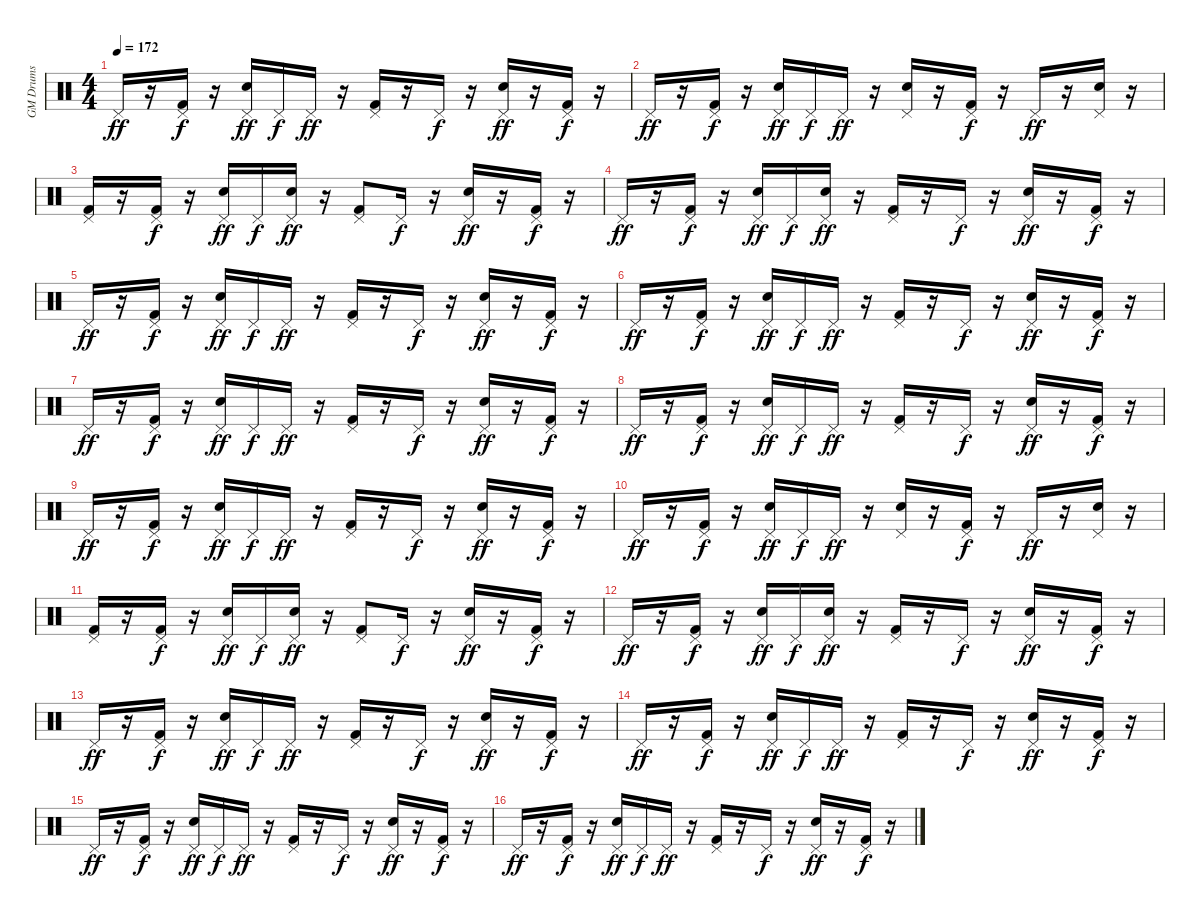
\track ("GM Drums" "GM Drums") {instrument percussion}
\staff {score}
\articulation defaults
\ts (4 4)
\tempo 172
\clef neutral
\ks c "Pedal Hi-Hat (hit)".16{dy ff}
r.16 ("Kick (hit) 2" "Pedal Hi-Hat (hit)").16{dy f} r.16 ("Snare (hit) 2" "Pedal Hi-Hat (hit)").16{dy ff} "Pedal Hi-Hat (hit)".16{dy f} "Pedal Hi-Hat (hit)".16{dy ff} r.16 ("Kick (hit) 2" "Pedal Hi-Hat (hit)").16 r.16 "Pedal Hi-Hat (hit)".16{dy f} r.16 ("Snare (hit) 2" "Pedal Hi-Hat (hit)").16{dy ff} r.16 ("Kick (hit) 2" "Pedal Hi-Hat (hit)").16{dy f} r.16 |
"Pedal Hi-Hat (hit)".16{dy ff} r.16 ("Kick (hit) 2" "Pedal Hi-Hat (hit)").16{dy f} r.16 ("Snare (hit) 2" "Pedal Hi-Hat (hit)").16{dy ff} "Pedal Hi-Hat (hit)".16{dy f} "Pedal Hi-Hat (hit)".16{dy ff} r.16 ("Snare (hit) 2" "Pedal Hi-Hat (hit)").16 r.16 ("Kick (hit) 2" "Pedal Hi-Hat (hit)").16{dy f} r.16 "Pedal Hi-Hat (hit)".16{dy ff} r.16 ("Snare (hit) 2" "Pedal Hi-Hat (hit)").16 r.16 |
("Kick (hit) 2" "Pedal Hi-Hat (hit)").16 r.16 ("Kick (hit) 2" "Pedal Hi-Hat (hit)").16{dy f} r.16 ("Snare (hit) 2" "Pedal Hi-Hat (hit)").16{dy ff} "Pedal Hi-Hat (hit)".16{dy f} ("Snare (hit) 2" "Pedal Hi-Hat (hit)").16{dy ff} r.16 ("Kick (hit) 2" "Pedal Hi-Hat (hit)").8 "Pedal Hi-Hat (hit)".16{dy f} r.16 ("Snare (hit) 2" "Pedal Hi-Hat (hit)").16{dy ff} r.16 ("Kick (hit) 2" "Pedal Hi-Hat (hit)").16{dy f} r.16 |
"Pedal Hi-Hat (hit)".16{dy ff} r.16 ("Kick (hit) 2" "Pedal Hi-Hat (hit)").16{dy f} r.16 ("Snare (hit) 2" "Pedal Hi-Hat (hit)").16{dy ff} "Pedal Hi-Hat (hit)".16{dy f} ("Snare (hit) 2" "Pedal Hi-Hat (hit)").16{dy ff} r.16 ("Kick (hit) 2" "Pedal Hi-Hat (hit)").16 r.16 "Pedal Hi-Hat (hit)".16{dy f} r.16 ("Snare (hit) 2" "Pedal Hi-Hat (hit)").16{dy ff} r.16 ("Kick (hit) 2" "Pedal Hi-Hat (hit)").16{dy f} r.16 |
"Pedal Hi-Hat (hit)".16{dy ff} r.16 ("Kick (hit) 2" "Pedal Hi-Hat (hit)").16{dy f} r.16 ("Snare (hit) 2" "Pedal Hi-Hat (hit)").16{dy ff} "Pedal Hi-Hat (hit)".16{dy f} "Pedal Hi-Hat (hit)".16{dy ff} r.16 ("Kick (hit) 2" "Pedal Hi-Hat (hit)").16 r.16 "Pedal Hi-Hat (hit)".16{dy f} r.16 ("Snare (hit) 2" "Pedal Hi-Hat (hit)").16{dy ff} r.16 ("Kick (hit) 2" "Pedal Hi-Hat (hit)").16{dy f} r.16 |
"Pedal Hi-Hat (hit)".16{dy ff} r.16 ("Kick (hit) 2" "Pedal Hi-Hat (hit)").16{dy f} r.16 ("Snare (hit) 2" "Pedal Hi-Hat (hit)").16{dy ff} "Pedal Hi-Hat (hit)".16{dy f} "Pedal Hi-Hat (hit)".16{dy ff} r.16 ("Kick (hit) 2" "Pedal Hi-Hat (hit)").16 r.16 "Pedal Hi-Hat (hit)".16{dy f} r.16 ("Snare (hit) 2" "Pedal Hi-Hat (hit)").16{dy ff} r.16 ("Kick (hit) 2" "Pedal Hi-Hat (hit)").16{dy f} r.16 |
"Pedal Hi-Hat (hit)".16{dy ff} r.16 ("Kick (hit) 2" "Pedal Hi-Hat (hit)").16{dy f} r.16 ("Snare (hit) 2" "Pedal Hi-Hat (hit)").16{dy ff} "Pedal Hi-Hat (hit)".16{dy f} "Pedal Hi-Hat (hit)".16{dy ff} r.16 ("Kick (hit) 2" "Pedal Hi-Hat (hit)").16 r.16 "Pedal Hi-Hat (hit)".16{dy f} r.16 ("Snare (hit) 2" "Pedal Hi-Hat (hit)").16{dy ff} r.16 ("Kick (hit) 2" "Pedal Hi-Hat (hit)").16{dy f} r.16 |
"Pedal Hi-Hat (hit)".16{dy ff} r.16 ("Kick (hit) 2" "Pedal Hi-Hat (hit)").16{dy f} r.16 ("Snare (hit) 2" "Pedal Hi-Hat (hit)").16{dy ff} "Pedal Hi-Hat (hit)".16{dy f} "Pedal Hi-Hat (hit)".16{dy ff} r.16 ("Kick (hit) 2" "Pedal Hi-Hat (hit)").16 r.16 "Pedal Hi-Hat (hit)".16{dy f} r.16 ("Snare (hit) 2" "Pedal Hi-Hat (hit)").16{dy ff} r.16 ("Kick (hit) 2" "Pedal Hi-Hat (hit)").16{dy f} r.16 |
"Pedal Hi-Hat (hit)".16{dy ff} r.16 ("Kick (hit) 2" "Pedal Hi-Hat (hit)").16{dy f} r.16 ("Snare (hit) 2" "Pedal Hi-Hat (hit)").16{dy ff} "Pedal Hi-Hat (hit)".16{dy f} "Pedal Hi-Hat (hit)".16{dy ff} r.16 ("Kick (hit) 2" "Pedal Hi-Hat (hit)").16 r.16 "Pedal Hi-Hat (hit)".16{dy f} r.16 ("Snare (hit) 2" "Pedal Hi-Hat (hit)").16{dy ff} r.16 ("Kick (hit) 2" "Pedal Hi-Hat (hit)").16{dy f} r.16 |
"Pedal Hi-Hat (hit)".16{dy ff} r.16 ("Kick (hit) 2" "Pedal Hi-Hat (hit)").16{dy f} r.16 ("Snare (hit) 2" "Pedal Hi-Hat (hit)").16{dy ff} "Pedal Hi-Hat (hit)".16{dy f} "Pedal Hi-Hat (hit)".16{dy ff} r.16 ("Snare (hit) 2" "Pedal Hi-Hat (hit)").16 r.16 ("Kick (hit) 2" "Pedal Hi-Hat (hit)").16{dy f} r.16 "Pedal Hi-Hat (hit)".16{dy ff} r.16 ("Snare (hit) 2" "Pedal Hi-Hat (hit)").16 r.16 |
("Kick (hit) 2" "Pedal Hi-Hat (hit)").16 r.16 ("Kick (hit) 2" "Pedal Hi-Hat (hit)").16{dy f} r.16 ("Snare (hit) 2" "Pedal Hi-Hat (hit)").16{dy ff} "Pedal Hi-Hat (hit)".16{dy f} ("Snare (hit) 2" "Pedal Hi-Hat (hit)").16{dy ff} r.16 ("Kick (hit) 2" "Pedal Hi-Hat (hit)").8 "Pedal Hi-Hat (hit)".16{dy f} r.16 ("Snare (hit) 2" "Pedal Hi-Hat (hit)").16{dy ff} r.16 ("Kick (hit) 2" "Pedal Hi-Hat (hit)").16{dy f} r.16 |
"Pedal Hi-Hat (hit)".16{dy ff} r.16 ("Kick (hit) 2" "Pedal Hi-Hat (hit)").16{dy f} r.16 ("Snare (hit) 2" "Pedal Hi-Hat (hit)").16{dy ff} "Pedal Hi-Hat (hit)".16{dy f} ("Snare (hit) 2" "Pedal Hi-Hat (hit)").16{dy ff} r.16 ("Kick (hit) 2" "Pedal Hi-Hat (hit)").16 r.16 "Pedal Hi-Hat (hit)".16{dy f} r.16 ("Snare (hit) 2" "Pedal Hi-Hat (hit)").16{dy ff} r.16 ("Kick (hit) 2" "Pedal Hi-Hat (hit)").16{dy f} r.16 |
"Pedal Hi-Hat (hit)".16{dy ff} r.16 ("Kick (hit) 2" "Pedal Hi-Hat (hit)").16{dy f} r.16 ("Snare (hit) 2" "Pedal Hi-Hat (hit)").16{dy ff} "Pedal Hi-Hat (hit)".16{dy f} "Pedal Hi-Hat (hit)".16{dy ff} r.16 ("Kick (hit) 2" "Pedal Hi-Hat (hit)").16 r.16 "Pedal Hi-Hat (hit)".16{dy f} r.16 ("Snare (hit) 2" "Pedal Hi-Hat (hit)").16{dy ff} r.16 ("Kick (hit) 2" "Pedal Hi-Hat (hit)").16{dy f} r.16 |
"Pedal Hi-Hat (hit)".16{dy ff} r.16 ("Kick (hit) 2" "Pedal Hi-Hat (hit)").16{dy f} r.16 ("Snare (hit) 2" "Pedal Hi-Hat (hit)").16{dy ff} "Pedal Hi-Hat (hit)".16{dy f} "Pedal Hi-Hat (hit)".16{dy ff} r.16 ("Kick (hit) 2" "Pedal Hi-Hat (hit)").16 r.16 "Pedal Hi-Hat (hit)".16{dy f} r.16 ("Snare (hit) 2" "Pedal Hi-Hat (hit)").16{dy ff} r.16 ("Kick (hit) 2" "Pedal Hi-Hat (hit)").16{dy f} r.16 |
"Pedal Hi-Hat (hit)".16{dy ff} r.16 ("Kick (hit) 2" "Pedal Hi-Hat (hit)").16{dy f} r.16 ("Snare (hit) 2" "Pedal Hi-Hat (hit)").16{dy ff} "Pedal Hi-Hat (hit)".16{dy f} "Pedal Hi-Hat (hit)".16{dy ff} r.16 ("Kick (hit) 2" "Pedal Hi-Hat (hit)").16 r.16 "Pedal Hi-Hat (hit)".16{dy f} r.16 ("Snare (hit) 2" "Pedal Hi-Hat (hit)").16{dy ff} r.16 ("Kick (hit) 2" "Pedal Hi-Hat (hit)").16{dy f} r.16 |
"Pedal Hi-Hat (hit)".16{dy ff} r.16 ("Kick (hit) 2" "Pedal Hi-Hat (hit)").16{dy f} r.16 ("Snare (hit) 2" "Pedal Hi-Hat (hit)").16{dy ff} "Pedal Hi-Hat (hit)".16{dy f} "Pedal Hi-Hat (hit)".16{dy ff} r.16 ("Kick (hit) 2" "Pedal Hi-Hat (hit)").16 r.16 "Pedal Hi-Hat (hit)".16{dy f} r.16 ("Snare (hit) 2" "Pedal Hi-Hat (hit)").16{dy ff} r.16 ("Kick (hit) 2" "Pedal Hi-Hat (hit)").16{dy f} r.16
